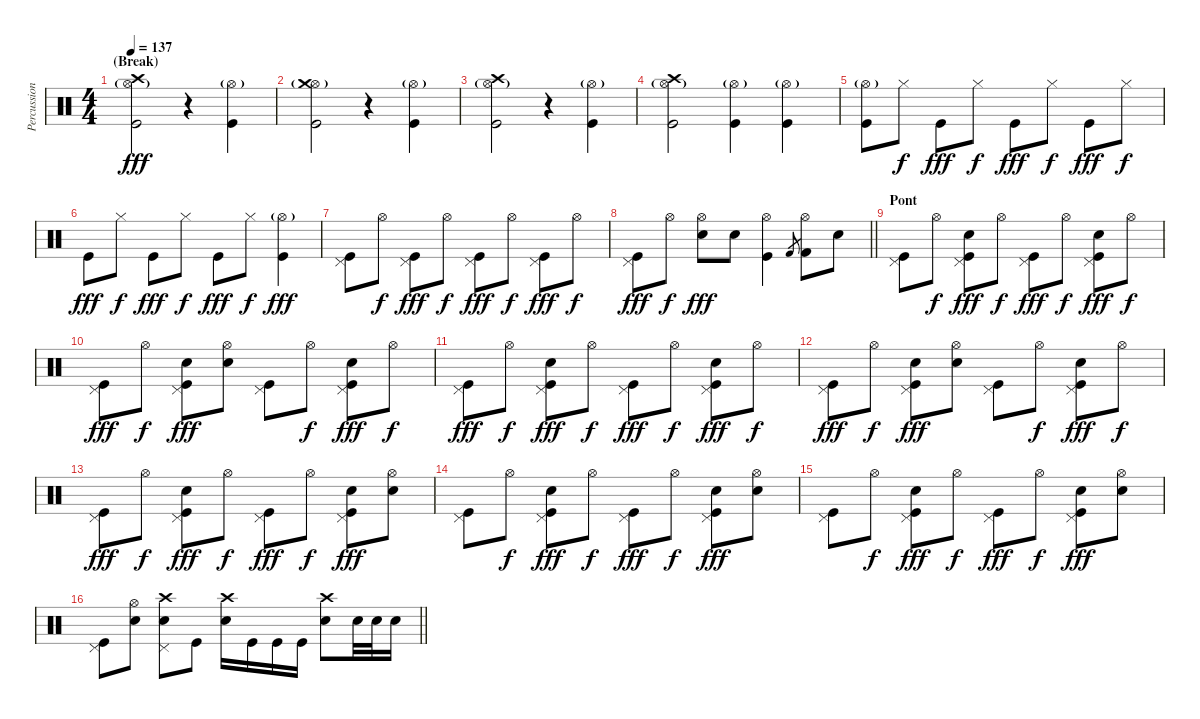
\track ("Percussions" "Percussion") {instrument percussion}
\staff {score}
\articulation defaults
\ts (4 4)
\section ("" "(Break)")
\tempo 137
\clef neutral
\ks c
("Kick (hit)" "Hi-Hat (open)"{g} "Crash high (hit)").2{dy fff} r.4 ("Kick (hit)" "Hi-Hat (open)"{g}).4 |
("Kick (hit)" "Hi-Hat (open)"{g} "Crash medium (hit)").2 r.4 ("Kick (hit)" "Hi-Hat (open)"{g}).4 |
("Kick (hit)" "Hi-Hat (open)"{g} "Crash high (hit)").2 r.4 ("Kick (hit)" "Hi-Hat (open)"{g}).4 |
("Kick (hit)" "Hi-Hat (open)"{g} "Crash high (hit)").2 ("Kick (hit)" "Hi-Hat (open)"{g}).4 ("Kick (hit)" "Hi-Hat (open)"{g}).4 |
("Kick (hit)" "Hi-Hat (open)"{g}).8 "Hi-Hat (closed)".8{dy f} "Kick (hit)".8{dy fff} "Hi-Hat (closed)".8{dy f} "Kick (hit)".8{dy fff} "Hi-Hat (closed)".8{dy f} "Kick (hit)".8{dy fff} "Hi-Hat (closed)".8{dy f} |
"Kick (hit)".8{dy fff} "Hi-Hat (closed)".8{dy f} "Kick (hit)".8{dy fff} "Hi-Hat (closed)".8{dy f} "Kick (hit)".8{dy fff} "Hi-Hat (closed)".8{dy f} ("Kick (hit)" "Hi-Hat (open)"{g}).4{dy fff} |
("Kick (hit)" "Pedal Hi-Hat (hit)").8 "Hi-Hat (open)".8{dy f} ("Kick (hit)" "Pedal Hi-Hat (hit)").8{dy fff} "Hi-Hat (open)".8{dy f} ("Kick (hit)" "Pedal Hi-Hat (hit)").8{dy fff} "Hi-Hat (open)".8{dy f} ("Kick (hit)" "Pedal Hi-Hat (hit)").8{dy fff} "Hi-Hat (open)".8{dy f} |
\barLineRight lightlight
("Kick (hit)" "Pedal Hi-Hat (hit)").8{dy fff} "Hi-Hat (open)".8{dy f} ("Electric Snare (hit)" "Hi-Hat (open)").8{dy fff} "Electric Snare (hit)".8 ("Kick (hit)" "Hi-Hat (open)").4 "Kick (hit) 2".8{gr} ("Kick (hit) 2" "Hi-Hat (open)").8 "Electric Snare (hit)".8 |
\section ("" "Pont")
("Kick (hit)" "Pedal Hi-Hat (hit)").8 "Hi-Hat (open)".8{dy f} ("Kick (hit)" "Electric Snare (hit)" "Pedal Hi-Hat (hit)").8{dy fff} "Hi-Hat (open)".8{dy f} ("Kick (hit)" "Pedal Hi-Hat (hit)").8{dy fff} "Hi-Hat (open)".8{dy f} ("Kick (hit)" "Electric Snare (hit)" "Pedal Hi-Hat (hit)").8{dy fff} "Hi-Hat (open)".8{dy f} |
("Kick (hit)" "Pedal Hi-Hat (hit)").8{dy fff} "Hi-Hat (open)".8{dy f} ("Kick (hit)" "Electric Snare (hit)" "Pedal Hi-Hat (hit)").8{dy fff} ("Electric Snare (hit)" "Hi-Hat (open)").8 ("Kick (hit)" "Pedal Hi-Hat (hit)").8 "Hi-Hat (open)".8{dy f} ("Kick (hit)" "Electric Snare (hit)" "Pedal Hi-Hat (hit)").8{dy fff} "Hi-Hat (open)".8{dy f} |
("Kick (hit)" "Pedal Hi-Hat (hit)").8{dy fff} "Hi-Hat (open)".8{dy f} ("Kick (hit)" "Electric Snare (hit)" "Pedal Hi-Hat (hit)").8{dy fff} "Hi-Hat (open)".8{dy f} ("Kick (hit)" "Pedal Hi-Hat (hit)").8{dy fff} "Hi-Hat (open)".8{dy f} ("Kick (hit)" "Electric Snare (hit)" "Pedal Hi-Hat (hit)").8{dy fff} "Hi-Hat (open)".8{dy f} |
("Kick (hit)" "Pedal Hi-Hat (hit)").8{dy fff} "Hi-Hat (open)".8{dy f} ("Kick (hit)" "Electric Snare (hit)" "Pedal Hi-Hat (hit)").8{dy fff} ("Electric Snare (hit)" "Hi-Hat (open)").8 ("Kick (hit)" "Pedal Hi-Hat (hit)").8 "Hi-Hat (open)".8{dy f} ("Kick (hit)" "Electric Snare (hit)" "Pedal Hi-Hat (hit)").8{dy fff} "Hi-Hat (open)".8{dy f} |
("Kick (hit)" "Pedal Hi-Hat (hit)").8{dy fff} "Hi-Hat (open)".8{dy f} ("Kick (hit)" "Electric Snare (hit)" "Pedal Hi-Hat (hit)").8{dy fff} "Hi-Hat (open)".8{dy f} ("Kick (hit)" "Pedal Hi-Hat (hit)").8{dy fff} "Hi-Hat (open)".8{dy f} ("Kick (hit)" "Electric Snare (hit)" "Pedal Hi-Hat (hit)").8{dy fff} ("Electric Snare (hit)" "Hi-Hat (open)").8 |
("Kick (hit)" "Pedal Hi-Hat (hit)").8 "Hi-Hat (open)".8{dy f} ("Kick (hit)" "Electric Snare (hit)" "Pedal Hi-Hat (hit)").8{dy fff} "Hi-Hat (open)".8{dy f} ("Kick (hit)" "Pedal Hi-Hat (hit)").8{dy fff} "Hi-Hat (open)".8{dy f} ("Kick (hit)" "Electric Snare (hit)" "Pedal Hi-Hat (hit)").8{dy fff} ("Electric Snare (hit)" "Hi-Hat (open)").8 |
("Kick (hit)" "Pedal Hi-Hat (hit)").8 "Hi-Hat (open)".8{dy f} ("Kick (hit)" "Electric Snare (hit)" "Pedal Hi-Hat (hit)").8{dy fff} "Hi-Hat (open)".8{dy f} ("Kick (hit)" "Pedal Hi-Hat (hit)").8{dy fff} "Hi-Hat (open)".8{dy f} ("Kick (hit)" "Electric Snare (hit)" "Pedal Hi-Hat (hit)").8{dy fff} ("Electric Snare (hit)" "Hi-Hat (open)").8 |
\barLineRight lightlight
("Kick (hit)" "Pedal Hi-Hat (hit)").8 ("Electric Snare (hit)" "Hi-Hat (open)").8 ("Electric Snare (hit)" "Pedal Hi-Hat (hit)" "Crash high (hit)").8 "Kick (hit)".8 ("Electric Snare (hit)" "Crash high (hit)").16 "Kick (hit)".16 "Kick (hit)".16 "Kick (hit)".16 ("Electric Snare (hit)" "Crash high (hit)").8 "Electric Snare (hit)".32 "Electric Snare (hit)".32 "Electric Snare (hit)".16
